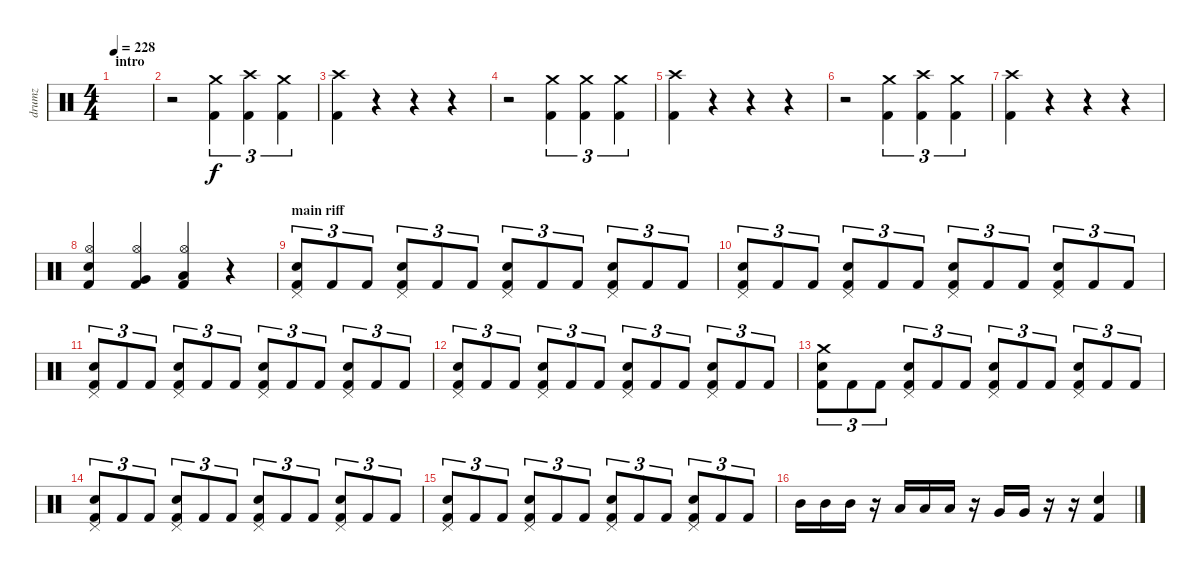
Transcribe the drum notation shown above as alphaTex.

\track ("drumz" "drumz") {instrument percussion}
\staff {score}
\articulation defaults
\ts (4 4)
\section ("" "intro")
\tempo 228
\clef neutral
\ks c
|
r.2 ("Crash medium (hit)" "Kick (hit) 2").4{tu (3 2)} ("Crash high (hit)" "Kick (hit) 2").4{tu (3 2)} ("Crash medium (hit)" "Kick (hit) 2").4{tu (3 2)} |
("Crash high (hit)" "Kick (hit) 2").4 r.4 r.4 r.4 |
r.2 ("Crash medium (hit)" "Kick (hit) 2").4{tu (3 2)} ("Crash medium (hit)" "Kick (hit) 2").4{tu (3 2)} ("Crash medium (hit)" "Kick (hit) 2").4{tu (3 2)} |
("Crash high (hit)" "Kick (hit) 2").4 r.4 r.4 r.4 |
r.2 ("Crash medium (hit)" "Kick (hit) 2").4{tu (3 2)} ("Crash high (hit)" "Kick (hit) 2").4{tu (3 2)} ("Crash medium (hit)" "Kick (hit) 2").4{tu (3 2)} |
("Crash high (hit)" "Kick (hit) 2").4 r.4 r.4 r.4 |
("Hi-Hat (open)" "Snare (hit) 2" "Kick (hit) 2").4 ("Hi-Hat (open)" "Very Low Tom (hit)" "Kick (hit) 2").4 ("Hi-Hat (open)" "Low Floor Tom (hit)" "Kick (hit) 2").4 r.4 |
\section ("" "main riff")
("Pedal Hi-Hat (hit)" "Snare (hit) 2" "Kick (hit) 2").8{tu (3 2)} "Kick (hit) 2".8{tu (3 2)} "Kick (hit) 2".8{tu (3 2)} ("Pedal Hi-Hat (hit)" "Snare (hit) 2" "Kick (hit) 2").8{tu (3 2)} "Kick (hit) 2".8{tu (3 2)} "Kick (hit) 2".8{tu (3 2)} ("Pedal Hi-Hat (hit)" "Snare (hit) 2" "Kick (hit) 2").8{tu (3 2)} "Kick (hit) 2".8{tu (3 2)} "Kick (hit) 2".8{tu (3 2)} ("Pedal Hi-Hat (hit)" "Snare (hit) 2" "Kick (hit) 2").8{tu (3 2)} "Kick (hit) 2".8{tu (3 2)} "Kick (hit) 2".8{tu (3 2)} |
("Pedal Hi-Hat (hit)" "Snare (hit) 2" "Kick (hit) 2").8{tu (3 2)} "Kick (hit) 2".8{tu (3 2)} "Kick (hit) 2".8{tu (3 2)} ("Pedal Hi-Hat (hit)" "Snare (hit) 2" "Kick (hit) 2").8{tu (3 2)} "Kick (hit) 2".8{tu (3 2)} "Kick (hit) 2".8{tu (3 2)} ("Pedal Hi-Hat (hit)" "Snare (hit) 2" "Kick (hit) 2").8{tu (3 2)} "Kick (hit) 2".8{tu (3 2)} "Kick (hit) 2".8{tu (3 2)} ("Pedal Hi-Hat (hit)" "Snare (hit) 2" "Kick (hit) 2").8{tu (3 2)} "Kick (hit) 2".8{tu (3 2)} "Kick (hit) 2".8{tu (3 2)} |
("Pedal Hi-Hat (hit)" "Snare (hit) 2" "Kick (hit) 2").8{tu (3 2)} "Kick (hit) 2".8{tu (3 2)} "Kick (hit) 2".8{tu (3 2)} ("Pedal Hi-Hat (hit)" "Snare (hit) 2" "Kick (hit) 2").8{tu (3 2)} "Kick (hit) 2".8{tu (3 2)} "Kick (hit) 2".8{tu (3 2)} ("Pedal Hi-Hat (hit)" "Snare (hit) 2" "Kick (hit) 2").8{tu (3 2)} "Kick (hit) 2".8{tu (3 2)} "Kick (hit) 2".8{tu (3 2)} ("Pedal Hi-Hat (hit)" "Snare (hit) 2" "Kick (hit) 2").8{tu (3 2)} "Kick (hit) 2".8{tu (3 2)} "Kick (hit) 2".8{tu (3 2)} |
("Pedal Hi-Hat (hit)" "Snare (hit) 2" "Kick (hit) 2").8{tu (3 2)} "Kick (hit) 2".8{tu (3 2)} "Kick (hit) 2".8{tu (3 2)} ("Pedal Hi-Hat (hit)" "Snare (hit) 2" "Kick (hit) 2").8{tu (3 2)} "Kick (hit) 2".8{tu (3 2)} "Kick (hit) 2".8{tu (3 2)} ("Pedal Hi-Hat (hit)" "Snare (hit) 2" "Kick (hit) 2").8{tu (3 2)} "Kick (hit) 2".8{tu (3 2)} "Kick (hit) 2".8{tu (3 2)} ("Pedal Hi-Hat (hit)" "Snare (hit) 2" "Kick (hit) 2").8{tu (3 2)} "Kick (hit) 2".8{tu (3 2)} "Kick (hit) 2".8{tu (3 2)} |
("Crash medium (hit)" "Snare (hit) 2" "Kick (hit) 2").8{tu (3 2)} "Kick (hit) 2".8{tu (3 2)} "Kick (hit) 2".8{tu (3 2)} ("Pedal Hi-Hat (hit)" "Snare (hit) 2" "Kick (hit) 2").8{tu (3 2)} "Kick (hit) 2".8{tu (3 2)} "Kick (hit) 2".8{tu (3 2)} ("Pedal Hi-Hat (hit)" "Snare (hit) 2" "Kick (hit) 2").8{tu (3 2)} "Kick (hit) 2".8{tu (3 2)} "Kick (hit) 2".8{tu (3 2)} ("Pedal Hi-Hat (hit)" "Snare (hit) 2" "Kick (hit) 2").8{tu (3 2)} "Kick (hit) 2".8{tu (3 2)} "Kick (hit) 2".8{tu (3 2)} |
("Pedal Hi-Hat (hit)" "Snare (hit) 2" "Kick (hit) 2").8{tu (3 2)} "Kick (hit) 2".8{tu (3 2)} "Kick (hit) 2".8{tu (3 2)} ("Pedal Hi-Hat (hit)" "Snare (hit) 2" "Kick (hit) 2").8{tu (3 2)} "Kick (hit) 2".8{tu (3 2)} "Kick (hit) 2".8{tu (3 2)} ("Pedal Hi-Hat (hit)" "Snare (hit) 2" "Kick (hit) 2").8{tu (3 2)} "Kick (hit) 2".8{tu (3 2)} "Kick (hit) 2".8{tu (3 2)} ("Pedal Hi-Hat (hit)" "Snare (hit) 2" "Kick (hit) 2").8{tu (3 2)} "Kick (hit) 2".8{tu (3 2)} "Kick (hit) 2".8{tu (3 2)} |
("Pedal Hi-Hat (hit)" "Snare (hit) 2" "Kick (hit) 2").8{tu (3 2)} "Kick (hit) 2".8{tu (3 2)} "Kick (hit) 2".8{tu (3 2)} ("Pedal Hi-Hat (hit)" "Snare (hit) 2" "Kick (hit) 2").8{tu (3 2)} "Kick (hit) 2".8{tu (3 2)} "Kick (hit) 2".8{tu (3 2)} ("Pedal Hi-Hat (hit)" "Snare (hit) 2" "Kick (hit) 2").8{tu (3 2)} "Kick (hit) 2".8{tu (3 2)} "Kick (hit) 2".8{tu (3 2)} ("Pedal Hi-Hat (hit)" "Snare (hit) 2" "Kick (hit) 2").8{tu (3 2)} "Kick (hit) 2".8{tu (3 2)} "Kick (hit) 2".8{tu (3 2)} |
"Mid Tom (hit)".16 "Mid Tom (hit)".16 "Mid Tom (hit)".16 r.16 "Low Tom (hit)".16 "Low Tom (hit)".16 "Low Tom (hit)".16 r.16 "Very Low Tom (hit)".16 "Very Low Tom (hit)".16 r.16 r.16 ("Snare (hit) 2" "Kick (hit) 2").4
